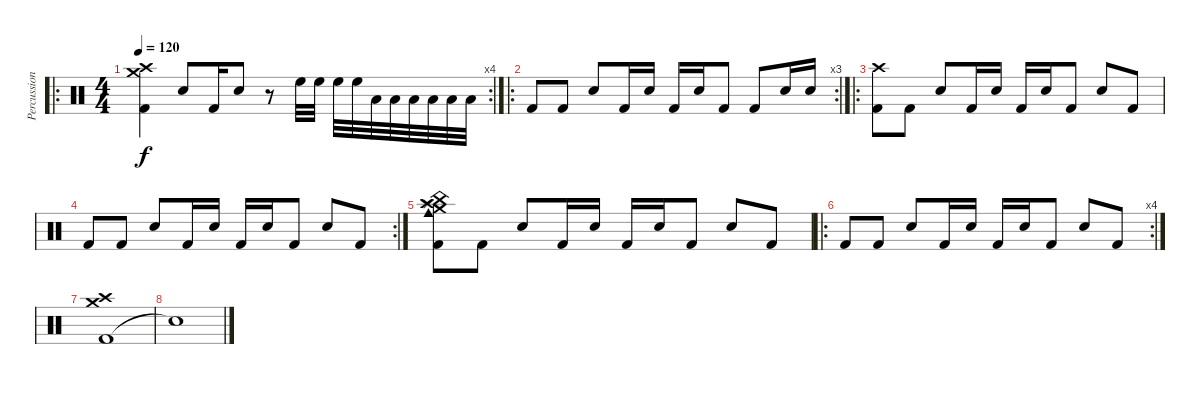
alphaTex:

\track ("Percussion" "Percussion") {instrument percussion}
\staff {score}
\articulation defaults
\ro
\rc 4
\ts (4 4)
\tempo 120
\clef neutral
\ks c
("Kick (hit) 2" "Crash medium (hit)" "Crash high (hit)").4{dy f} "Electric Snare (hit)".8 "Kick (hit) 2".16 "Electric Snare (hit)".8 r.8 "High Floor Tom (hit)".32 "High Floor Tom (hit)".32 "High Floor Tom (hit)".32 "High Floor Tom (hit)".32 "Low Tom (hit)".32 "Low Tom (hit)".32 "Low Tom (hit)".32 "Low Tom (hit)".32 "Low Floor Tom (hit)".32 "Low Floor Tom (hit)".32 |
\ro
\rc 3 "Kick (hit) 2".8 "Kick (hit) 2".8 "Electric Snare (hit)".8 "Kick (hit) 2".16 "Electric Snare (hit)".16 "Kick (hit) 2".16 "Electric Snare (hit)".16 "Kick (hit) 2".8 "Kick (hit) 2".8 "Electric Snare (hit)".16 "Electric Snare (hit)".16
|
\ro
("Crash high (hit)" "Kick (hit) 2").8 "Kick (hit) 2".8 "Electric Snare (hit)".8 "Kick (hit) 2".16 "Electric Snare (hit)".16 "Kick (hit) 2".16 "Electric Snare (hit)".16 "Kick (hit) 2".8 "Electric Snare (hit)".8 "Kick (hit) 2".8 |
\rc 2 "Kick (hit) 2".8 "Kick (hit) 2".8 "Electric Snare (hit)".8 "Kick (hit) 2".16 "Electric Snare (hit)".16 "Kick (hit) 2".16 "Electric Snare (hit)".16 "Kick (hit) 2".8 "Electric Snare (hit)".8 "Kick (hit) 2".8
|
("Cowbell medium (hit)" "China (hit)" "Splash (hit)" "Crash high (hit)" "Crash medium (hit)" "Kick (hit) 2").8 "Kick (hit) 2".8 "Electric Snare (hit)".8 "Kick (hit) 2".16 "Electric Snare (hit)".16 "Kick (hit) 2".16 "Electric Snare (hit)".16 "Kick (hit) 2".8 "Electric Snare (hit)".8 "Kick (hit) 2".8 |
\ro
\rc 4 "Kick (hit) 2".8 "Kick (hit) 2".8 "Electric Snare (hit)".8 "Kick (hit) 2".16 "Electric Snare (hit)".16 "Kick (hit) 2".16 "Electric Snare (hit)".16 "Kick (hit) 2".8 "Electric Snare (hit)".8 "Kick (hit) 2".8
|
("Kick (hit) 2" "Crash high (hit)" "Crash medium (hit)").1 |
"Snare (hit)"{t}.1
